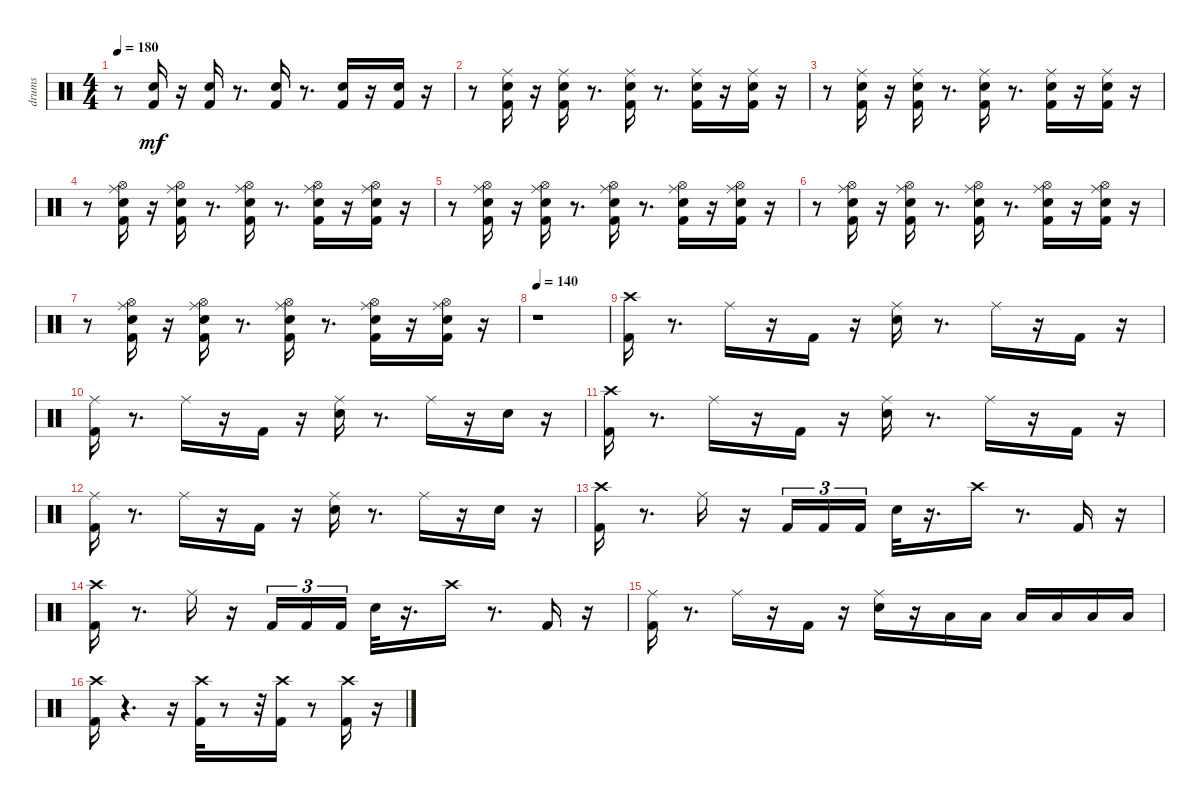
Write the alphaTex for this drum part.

\track ("drums               " "drums     ") {instrument percussion}
\staff {score}
\articulation defaults
\ts (4 4)
\tempo 180
\clef neutral
\ks c
r.8{dy mf} ("Kick (hit) 2" "Snare (hit) 2").16 r.16 ("Kick (hit) 2" "Snare (hit) 2").16 r.8{d} ("Kick (hit) 2" "Snare (hit) 2").16 r.8{d} ("Kick (hit) 2" "Snare (hit) 2").16 r.16 ("Kick (hit) 2" "Snare (hit) 2").16 r.16 |
r.8 ("Kick (hit) 2" "Snare (hit) 2" "Ride (middle)").16 r.16 ("Kick (hit) 2" "Snare (hit) 2" "Ride (middle)").16 r.8{d} ("Kick (hit) 2" "Snare (hit) 2" "Ride (middle)").16 r.8{d} ("Kick (hit) 2" "Snare (hit) 2" "Ride (middle)").16 r.16 ("Kick (hit) 2" "Snare (hit) 2" "Ride (middle)").16 r.16 |
r.8 ("Kick (hit) 2" "Snare (hit) 2" "Ride (middle)").16 r.16 ("Kick (hit) 2" "Snare (hit) 2" "Ride (middle)").16 r.8{d} ("Kick (hit) 2" "Snare (hit) 2" "Ride (middle)").16 r.8{d} ("Kick (hit) 2" "Snare (hit) 2" "Ride (middle)").16 r.16 ("Kick (hit) 2" "Snare (hit) 2" "Ride (middle)").16 r.16 |
r.8 ("Kick (hit) 2" "Snare (hit) 2" "Ride (middle)" "Hi-Hat (open)").16 r.16 ("Kick (hit) 2" "Snare (hit) 2" "Ride (middle)" "Hi-Hat (open)").16 r.8{d} ("Kick (hit) 2" "Snare (hit) 2" "Ride (middle)" "Hi-Hat (open)").16 r.8{d} ("Kick (hit) 2" "Snare (hit) 2" "Ride (middle)" "Hi-Hat (open)").16 r.16 ("Kick (hit) 2" "Snare (hit) 2" "Ride (middle)" "Hi-Hat (open)").16 r.16 |
r.8 ("Kick (hit) 2" "Snare (hit) 2" "Ride (middle)" "Hi-Hat (open)").16 r.16 ("Kick (hit) 2" "Snare (hit) 2" "Ride (middle)" "Hi-Hat (open)").16 r.8{d} ("Kick (hit) 2" "Snare (hit) 2" "Ride (middle)" "Hi-Hat (open)").16 r.8{d} ("Kick (hit) 2" "Snare (hit) 2" "Ride (middle)" "Hi-Hat (open)").16 r.16 ("Kick (hit) 2" "Snare (hit) 2" "Ride (middle)" "Hi-Hat (open)").16 r.16 |
r.8 ("Kick (hit) 2" "Snare (hit) 2" "Ride (middle)" "Hi-Hat (open)").16 r.16 ("Kick (hit) 2" "Snare (hit) 2" "Ride (middle)" "Hi-Hat (open)").16 r.8{d} ("Kick (hit) 2" "Snare (hit) 2" "Ride (middle)" "Hi-Hat (open)").16 r.8{d} ("Kick (hit) 2" "Snare (hit) 2" "Ride (middle)" "Hi-Hat (open)").16 r.16 ("Kick (hit) 2" "Snare (hit) 2" "Ride (middle)" "Hi-Hat (open)").16 r.16 |
r.8 ("Kick (hit) 2" "Snare (hit) 2" "Ride (middle)" "Hi-Hat (open)").16 r.16 ("Kick (hit) 2" "Snare (hit) 2" "Ride (middle)" "Hi-Hat (open)").16 r.8{d} ("Kick (hit) 2" "Snare (hit) 2" "Ride (middle)" "Hi-Hat (open)").16 r.8{d} ("Kick (hit) 2" "Snare (hit) 2" "Ride (middle)" "Hi-Hat (open)").16 r.16 ("Kick (hit) 2" "Snare (hit) 2" "Ride (middle)" "Hi-Hat (open)").16 r.16 |
\tempo 140
r.1 |
("Kick (hit) 2" "Crash high (hit)").16 r.8{d} "Ride (middle)".16 r.16 "Kick (hit) 2".16 r.16 ("Ride (middle)" "Snare (hit) 2").16 r.8{d} "Ride (middle)".16 r.16 "Kick (hit) 2".16 r.16 |
("Kick (hit) 2" "Ride (middle)").16 r.8{d} "Ride (middle)".16 r.16 "Kick (hit) 2".16 r.16 ("Ride (middle)" "Snare (hit) 2").16 r.8{d} "Ride (middle)".16 r.16 "Snare (hit) 2".16 r.16 |
("Kick (hit) 2" "Crash high (hit)").16 r.8{d} "Ride (middle)".16 r.16 "Kick (hit) 2".16 r.16 ("Ride (middle)" "Snare (hit) 2").16 r.8{d} "Ride (middle)".16 r.16 "Kick (hit) 2".16 r.16 |
("Kick (hit) 2" "Ride (middle)").16 r.8{d} "Ride (middle)".16 r.16 "Kick (hit) 2".16 r.16 ("Ride (middle)" "Snare (hit) 2").16 r.8{d} "Ride (middle)".16 r.16 "Snare (hit) 2".16 r.16 |
("Kick (hit) 2" "Crash high (hit)").16 r.8{d} "Ride (middle)".16 r.16 "Kick (hit) 2".16{tu (3 2)} "Kick (hit) 2".16{tu (3 2)} "Kick (hit) 2".16{tu (3 2)} "Snare (hit) 2".32 r.16{d} "Crash high (hit)".16 r.8{d} "Kick (hit) 2".16 r.16 |
("Kick (hit) 2" "Crash high (hit)").16 r.8{d} "Ride (middle)".16 r.16 "Kick (hit) 2".16{tu (3 2)} "Kick (hit) 2".16{tu (3 2)} "Kick (hit) 2".16{tu (3 2)} "Snare (hit) 2".32 r.16{d} "Crash high (hit)".16 r.8{d} "Kick (hit) 2".16 r.16 |
("Kick (hit) 2" "Ride (middle)").16 r.8{d} "Ride (middle)".16 r.16 "Kick (hit) 2".16 r.16 ("Snare (hit) 2" "Ride (middle)").16 r.16 "Low Tom (hit)".16 "Low Tom (hit)".16 "Low Tom (hit)".16 "Low Floor Tom (hit)".16 "Low Floor Tom (hit)".16 "Low Floor Tom (hit)".16 |
("Kick (hit) 2" "Crash high (hit)").16 r.4{d} r.16 ("Crash high (hit)" "Kick (hit) 2").32 r.8 r.32 ("Kick (hit) 2" "Crash high (hit)").16 r.8 ("Kick (hit) 2" "Crash high (hit)").16 r.16
